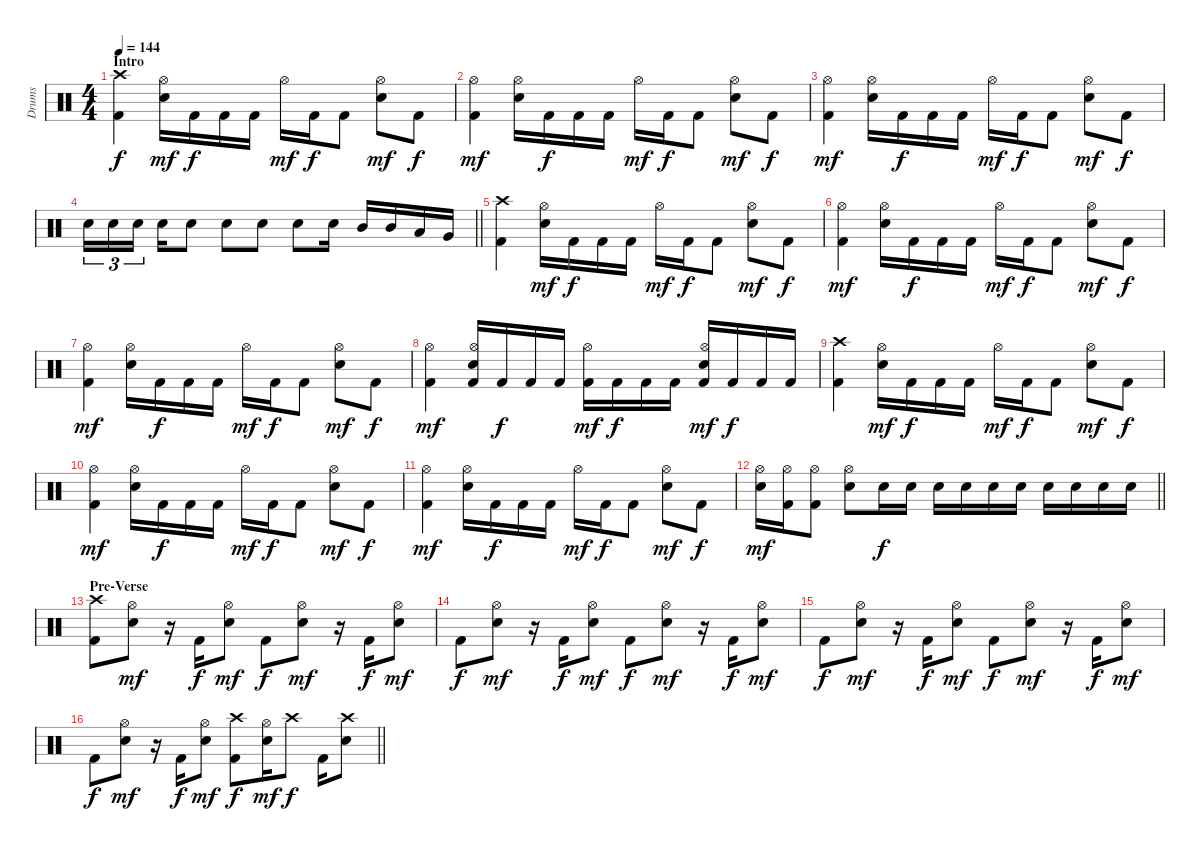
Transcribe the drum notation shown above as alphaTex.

\track ("Drums" "Drums") {instrument percussion}
\staff {score}
\articulation defaults
\ts (4 4)
\section ("" "Intro")
\tempo 144
\clef neutral
\ks c
("Crash high (hit)" "Kick (hit) 2").4{dy f} ("Hi-Hat (open)" "Electric Snare (hit)").16{dy mf} "Kick (hit) 2".16{dy f} "Kick (hit) 2".16 "Kick (hit) 2".16 "Hi-Hat (open)".16{dy mf} "Kick (hit) 2".16{dy f} "Kick (hit) 2".8 ("Hi-Hat (open)" "Electric Snare (hit)").8{dy mf} "Kick (hit) 2".8{dy f} |
("Hi-Hat (open)" "Kick (hit) 2").4{dy mf} ("Hi-Hat (open)" "Electric Snare (hit)").16 "Kick (hit) 2".16{dy f} "Kick (hit) 2".16 "Kick (hit) 2".16 "Hi-Hat (open)".16{dy mf} "Kick (hit) 2".16{dy f} "Kick (hit) 2".8 ("Hi-Hat (open)" "Electric Snare (hit)").8{dy mf} "Kick (hit) 2".8{dy f} |
("Hi-Hat (open)" "Kick (hit) 2").4{dy mf} ("Hi-Hat (open)" "Electric Snare (hit)").16 "Kick (hit) 2".16{dy f} "Kick (hit) 2".16 "Kick (hit) 2".16 "Hi-Hat (open)".16{dy mf} "Kick (hit) 2".16{dy f} "Kick (hit) 2".8 ("Hi-Hat (open)" "Electric Snare (hit)").8{dy mf} "Kick (hit) 2".8{dy f} |
\barLineRight lightlight "Electric Snare (hit)".16{tu (3 2)} "Electric Snare (hit)".16{tu (3 2)} "Electric Snare (hit)".16{tu (3 2)} "Electric Snare (hit)".16 "Electric Snare (hit)".8 "Electric Snare (hit)".8 "Electric Snare (hit)".8 "Electric Snare (hit)".8 "Electric Snare (hit)".16 "Mid Tom (hit)".16 "Mid Tom (hit)".16 "Low Tom (hit)".16 "Very Low Tom (hit)".16
|
\section ("" "")
("Crash high (hit)" "Kick (hit) 2").4 ("Hi-Hat (open)" "Electric Snare (hit)").16{dy mf} "Kick (hit) 2".16{dy f} "Kick (hit) 2".16 "Kick (hit) 2".16 "Hi-Hat (open)".16{dy mf} "Kick (hit) 2".16{dy f} "Kick (hit) 2".8 ("Hi-Hat (open)" "Electric Snare (hit)").8{dy mf} "Kick (hit) 2".8{dy f} |
("Hi-Hat (open)" "Kick (hit) 2").4{dy mf} ("Hi-Hat (open)" "Electric Snare (hit)").16 "Kick (hit) 2".16{dy f} "Kick (hit) 2".16 "Kick (hit) 2".16 "Hi-Hat (open)".16{dy mf} "Kick (hit) 2".16{dy f} "Kick (hit) 2".8 ("Hi-Hat (open)" "Electric Snare (hit)").8{dy mf} "Kick (hit) 2".8{dy f} |
("Hi-Hat (open)" "Kick (hit) 2").4{dy mf} ("Hi-Hat (open)" "Electric Snare (hit)").16 "Kick (hit) 2".16{dy f} "Kick (hit) 2".16 "Kick (hit) 2".16 "Hi-Hat (open)".16{dy mf} "Kick (hit) 2".16{dy f} "Kick (hit) 2".8 ("Hi-Hat (open)" "Electric Snare (hit)").8{dy mf} "Kick (hit) 2".8{dy f} |
("Hi-Hat (open)" "Kick (hit) 2").4{dy mf} ("Hi-Hat (open)" "Electric Snare (hit)" "Kick (hit) 2").16 "Kick (hit) 2".16{dy f} "Kick (hit) 2".16 "Kick (hit) 2".16 ("Hi-Hat (open)" "Kick (hit) 2").16{dy mf} "Kick (hit) 2".16{dy f} "Kick (hit) 2".16 "Kick (hit) 2".16 ("Hi-Hat (open)" "Electric Snare (hit)" "Kick (hit) 2").16{dy mf} "Kick (hit) 2".16{dy f} "Kick (hit) 2".16 "Kick (hit) 2".16 |
("Crash high (hit)" "Kick (hit) 2").4 ("Hi-Hat (open)" "Electric Snare (hit)").16{dy mf} "Kick (hit) 2".16{dy f} "Kick (hit) 2".16 "Kick (hit) 2".16 "Hi-Hat (open)".16{dy mf} "Kick (hit) 2".16{dy f} "Kick (hit) 2".8 ("Hi-Hat (open)" "Electric Snare (hit)").8{dy mf} "Kick (hit) 2".8{dy f} |
("Hi-Hat (open)" "Kick (hit) 2").4{dy mf} ("Hi-Hat (open)" "Electric Snare (hit)").16 "Kick (hit) 2".16{dy f} "Kick (hit) 2".16 "Kick (hit) 2".16 "Hi-Hat (open)".16{dy mf} "Kick (hit) 2".16{dy f} "Kick (hit) 2".8 ("Hi-Hat (open)" "Electric Snare (hit)").8{dy mf} "Kick (hit) 2".8{dy f} |
("Hi-Hat (open)" "Kick (hit) 2").4{dy mf} ("Hi-Hat (open)" "Electric Snare (hit)").16 "Kick (hit) 2".16{dy f} "Kick (hit) 2".16 "Kick (hit) 2".16 "Hi-Hat (open)".16{dy mf} "Kick (hit) 2".16{dy f} "Kick (hit) 2".8 ("Hi-Hat (open)" "Electric Snare (hit)").8{dy mf} "Kick (hit) 2".8{dy f} |
\barLineRight lightlight
("Hi-Hat (open)" "Electric Snare (hit)").16{dy mf} ("Hi-Hat (open)" "Kick (hit) 2").16 ("Hi-Hat (open)" "Kick (hit) 2").8 ("Hi-Hat (open)" "Electric Snare (hit)").8 "Electric Snare (hit)".16{dy f} "Electric Snare (hit)".16 "Electric Snare (hit)".16 "Electric Snare (hit)".16 "Electric Snare (hit)".16 "Electric Snare (hit)".16 "Electric Snare (hit)".16 "Electric Snare (hit)".16 "Electric Snare (hit)".16 "Electric Snare (hit)".16 |
\section ("" "Pre-Verse")
("Crash high (hit)" "Kick (hit) 2").8 ("Hi-Hat (open)" "Electric Snare (hit)").8{dy mf} r.16 "Kick (hit) 2".16{dy f} ("Hi-Hat (open)" "Electric Snare (hit)").8{dy mf} "Kick (hit) 2".8{dy f} ("Hi-Hat (open)" "Electric Snare (hit)").8{dy mf} r.16 "Kick (hit) 2".16{dy f} ("Hi-Hat (open)" "Electric Snare (hit)").8{dy mf} |
"Kick (hit) 2".8{dy f} ("Hi-Hat (open)" "Electric Snare (hit)").8{dy mf} r.16 "Kick (hit) 2".16{dy f} ("Hi-Hat (open)" "Electric Snare (hit)").8{dy mf} "Kick (hit) 2".8{dy f} ("Hi-Hat (open)" "Electric Snare (hit)").8{dy mf} r.16 "Kick (hit) 2".16{dy f} ("Hi-Hat (open)" "Electric Snare (hit)").8{dy mf} |
"Kick (hit) 2".8{dy f} ("Hi-Hat (open)" "Electric Snare (hit)").8{dy mf} r.16 "Kick (hit) 2".16{dy f} ("Hi-Hat (open)" "Electric Snare (hit)").8{dy mf} "Kick (hit) 2".8{dy f} ("Hi-Hat (open)" "Electric Snare (hit)").8{dy mf} r.16 "Kick (hit) 2".16{dy f} ("Hi-Hat (open)" "Electric Snare (hit)").8{dy mf} |
\barLineRight lightlight "Kick (hit) 2".8{dy f}
("Hi-Hat (open)" "Electric Snare (hit)").8{dy mf} r.16 "Kick (hit) 2".16{dy f} ("Hi-Hat (open)" "Electric Snare (hit)").8{dy mf} ("Crash high (hit)" "Kick (hit) 2").8{dy f} ("Hi-Hat (open)" "Electric Snare (hit)").16{dy mf} "Crash high (hit)".8{dy f} "Kick (hit) 2".16 ("Crash high (hit)" "Electric Snare (hit)").8
